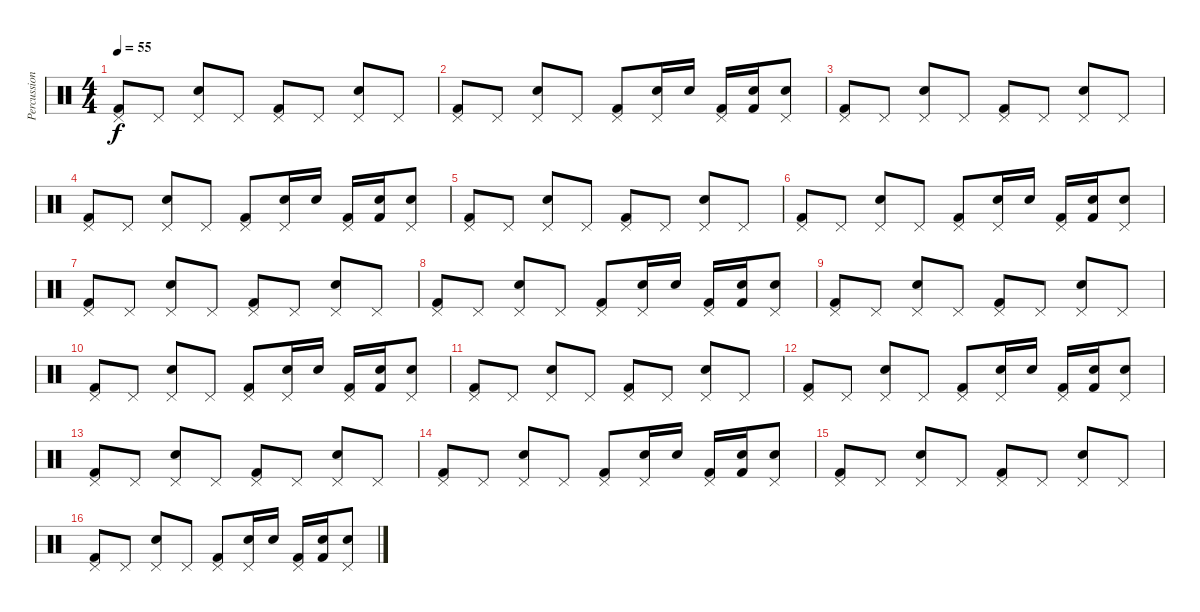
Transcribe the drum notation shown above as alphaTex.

\track ("Percussions" "Percussion") {instrument percussion}
\staff {score}
\articulation defaults
\ts (4 4)
\tempo 55
\clef neutral
\ks c
("Pedal Hi-Hat (hit)" "Kick (hit) 2").8{dy f volume 0} "Pedal Hi-Hat (hit)".8 ("Pedal Hi-Hat (hit)" "Electric Snare (hit)").8 "Pedal Hi-Hat (hit)".8 ("Pedal Hi-Hat (hit)" "Kick (hit) 2").8 "Pedal Hi-Hat (hit)".8 ("Pedal Hi-Hat (hit)" "Electric Snare (hit)").8{volume 13} "Pedal Hi-Hat (hit)".8 |
("Pedal Hi-Hat (hit)" "Kick (hit) 2").8 "Pedal Hi-Hat (hit)".8 ("Pedal Hi-Hat (hit)" "Electric Snare (hit)").8 "Pedal Hi-Hat (hit)".8 ("Pedal Hi-Hat (hit)" "Kick (hit) 2").8 ("Pedal Hi-Hat (hit)" "Electric Snare (hit)").16 "Electric Snare (hit)".16 ("Pedal Hi-Hat (hit)" "Kick (hit) 2").16 ("Electric Snare (hit)" "Kick (hit) 2").16 ("Pedal Hi-Hat (hit)" "Electric Snare (hit)").8 |
("Pedal Hi-Hat (hit)" "Kick (hit) 2").8 "Pedal Hi-Hat (hit)".8 ("Pedal Hi-Hat (hit)" "Electric Snare (hit)").8 "Pedal Hi-Hat (hit)".8 ("Pedal Hi-Hat (hit)" "Kick (hit) 2").8 "Pedal Hi-Hat (hit)".8 ("Pedal Hi-Hat (hit)" "Electric Snare (hit)").8 "Pedal Hi-Hat (hit)".8 |
("Pedal Hi-Hat (hit)" "Kick (hit) 2").8 "Pedal Hi-Hat (hit)".8 ("Pedal Hi-Hat (hit)" "Electric Snare (hit)").8 "Pedal Hi-Hat (hit)".8 ("Pedal Hi-Hat (hit)" "Kick (hit) 2").8 ("Pedal Hi-Hat (hit)" "Electric Snare (hit)").16 "Electric Snare (hit)".16 ("Pedal Hi-Hat (hit)" "Kick (hit) 2").16 ("Electric Snare (hit)" "Kick (hit) 2").16 ("Pedal Hi-Hat (hit)" "Electric Snare (hit)").8 |
("Pedal Hi-Hat (hit)" "Kick (hit) 2").8 "Pedal Hi-Hat (hit)".8 ("Pedal Hi-Hat (hit)" "Electric Snare (hit)").8 "Pedal Hi-Hat (hit)".8 ("Pedal Hi-Hat (hit)" "Kick (hit) 2").8 "Pedal Hi-Hat (hit)".8 ("Pedal Hi-Hat (hit)" "Electric Snare (hit)").8 "Pedal Hi-Hat (hit)".8 |
("Pedal Hi-Hat (hit)" "Kick (hit) 2").8 "Pedal Hi-Hat (hit)".8 ("Pedal Hi-Hat (hit)" "Electric Snare (hit)").8 "Pedal Hi-Hat (hit)".8 ("Pedal Hi-Hat (hit)" "Kick (hit) 2").8 ("Pedal Hi-Hat (hit)" "Electric Snare (hit)").16 "Electric Snare (hit)".16 ("Pedal Hi-Hat (hit)" "Kick (hit) 2").16 ("Electric Snare (hit)" "Kick (hit) 2").16 ("Pedal Hi-Hat (hit)" "Electric Snare (hit)").8 |
("Pedal Hi-Hat (hit)" "Kick (hit) 2").8 "Pedal Hi-Hat (hit)".8 ("Pedal Hi-Hat (hit)" "Electric Snare (hit)").8 "Pedal Hi-Hat (hit)".8 ("Pedal Hi-Hat (hit)" "Kick (hit) 2").8 "Pedal Hi-Hat (hit)".8 ("Pedal Hi-Hat (hit)" "Electric Snare (hit)").8 "Pedal Hi-Hat (hit)".8 |
("Pedal Hi-Hat (hit)" "Kick (hit) 2").8 "Pedal Hi-Hat (hit)".8 ("Pedal Hi-Hat (hit)" "Electric Snare (hit)").8 "Pedal Hi-Hat (hit)".8 ("Pedal Hi-Hat (hit)" "Kick (hit) 2").8 ("Pedal Hi-Hat (hit)" "Electric Snare (hit)").16 "Electric Snare (hit)".16 ("Pedal Hi-Hat (hit)" "Kick (hit) 2").16 ("Electric Snare (hit)" "Kick (hit) 2").16 ("Pedal Hi-Hat (hit)" "Electric Snare (hit)").8 |
("Pedal Hi-Hat (hit)" "Kick (hit) 2").8 "Pedal Hi-Hat (hit)".8 ("Pedal Hi-Hat (hit)" "Electric Snare (hit)").8 "Pedal Hi-Hat (hit)".8 ("Pedal Hi-Hat (hit)" "Kick (hit) 2").8 "Pedal Hi-Hat (hit)".8 ("Pedal Hi-Hat (hit)" "Electric Snare (hit)").8 "Pedal Hi-Hat (hit)".8 |
("Pedal Hi-Hat (hit)" "Kick (hit) 2").8 "Pedal Hi-Hat (hit)".8 ("Pedal Hi-Hat (hit)" "Electric Snare (hit)").8 "Pedal Hi-Hat (hit)".8 ("Pedal Hi-Hat (hit)" "Kick (hit) 2").8 ("Pedal Hi-Hat (hit)" "Electric Snare (hit)").16 "Electric Snare (hit)".16 ("Pedal Hi-Hat (hit)" "Kick (hit) 2").16 ("Electric Snare (hit)" "Kick (hit) 2").16 ("Pedal Hi-Hat (hit)" "Electric Snare (hit)").8 |
("Pedal Hi-Hat (hit)" "Kick (hit) 2").8 "Pedal Hi-Hat (hit)".8 ("Pedal Hi-Hat (hit)" "Electric Snare (hit)").8 "Pedal Hi-Hat (hit)".8 ("Pedal Hi-Hat (hit)" "Kick (hit) 2").8 "Pedal Hi-Hat (hit)".8 ("Pedal Hi-Hat (hit)" "Electric Snare (hit)").8 "Pedal Hi-Hat (hit)".8 |
("Pedal Hi-Hat (hit)" "Kick (hit) 2").8 "Pedal Hi-Hat (hit)".8 ("Pedal Hi-Hat (hit)" "Electric Snare (hit)").8 "Pedal Hi-Hat (hit)".8 ("Pedal Hi-Hat (hit)" "Kick (hit) 2").8 ("Pedal Hi-Hat (hit)" "Electric Snare (hit)").16 "Electric Snare (hit)".16 ("Pedal Hi-Hat (hit)" "Kick (hit) 2").16 ("Electric Snare (hit)" "Kick (hit) 2").16 ("Pedal Hi-Hat (hit)" "Electric Snare (hit)").8 |
("Pedal Hi-Hat (hit)" "Kick (hit) 2").8 "Pedal Hi-Hat (hit)".8 ("Pedal Hi-Hat (hit)" "Electric Snare (hit)").8 "Pedal Hi-Hat (hit)".8 ("Pedal Hi-Hat (hit)" "Kick (hit) 2").8 "Pedal Hi-Hat (hit)".8 ("Pedal Hi-Hat (hit)" "Electric Snare (hit)").8 "Pedal Hi-Hat (hit)".8 |
("Pedal Hi-Hat (hit)" "Kick (hit) 2").8 "Pedal Hi-Hat (hit)".8 ("Pedal Hi-Hat (hit)" "Electric Snare (hit)").8 "Pedal Hi-Hat (hit)".8 ("Pedal Hi-Hat (hit)" "Kick (hit) 2").8 ("Pedal Hi-Hat (hit)" "Electric Snare (hit)").16 "Electric Snare (hit)".16 ("Pedal Hi-Hat (hit)" "Kick (hit) 2").16 ("Electric Snare (hit)" "Kick (hit) 2").16 ("Pedal Hi-Hat (hit)" "Electric Snare (hit)").8 |
("Pedal Hi-Hat (hit)" "Kick (hit) 2").8 "Pedal Hi-Hat (hit)".8 ("Pedal Hi-Hat (hit)" "Electric Snare (hit)").8 "Pedal Hi-Hat (hit)".8 ("Pedal Hi-Hat (hit)" "Kick (hit) 2").8 "Pedal Hi-Hat (hit)".8 ("Pedal Hi-Hat (hit)" "Electric Snare (hit)").8 "Pedal Hi-Hat (hit)".8 |
("Pedal Hi-Hat (hit)" "Kick (hit) 2").8 "Pedal Hi-Hat (hit)".8 ("Pedal Hi-Hat (hit)" "Electric Snare (hit)").8 "Pedal Hi-Hat (hit)".8 ("Pedal Hi-Hat (hit)" "Kick (hit) 2").8 ("Pedal Hi-Hat (hit)" "Electric Snare (hit)").16 "Electric Snare (hit)".16 ("Pedal Hi-Hat (hit)" "Kick (hit) 2").16 ("Electric Snare (hit)" "Kick (hit) 2").16 ("Pedal Hi-Hat (hit)" "Electric Snare (hit)").8
